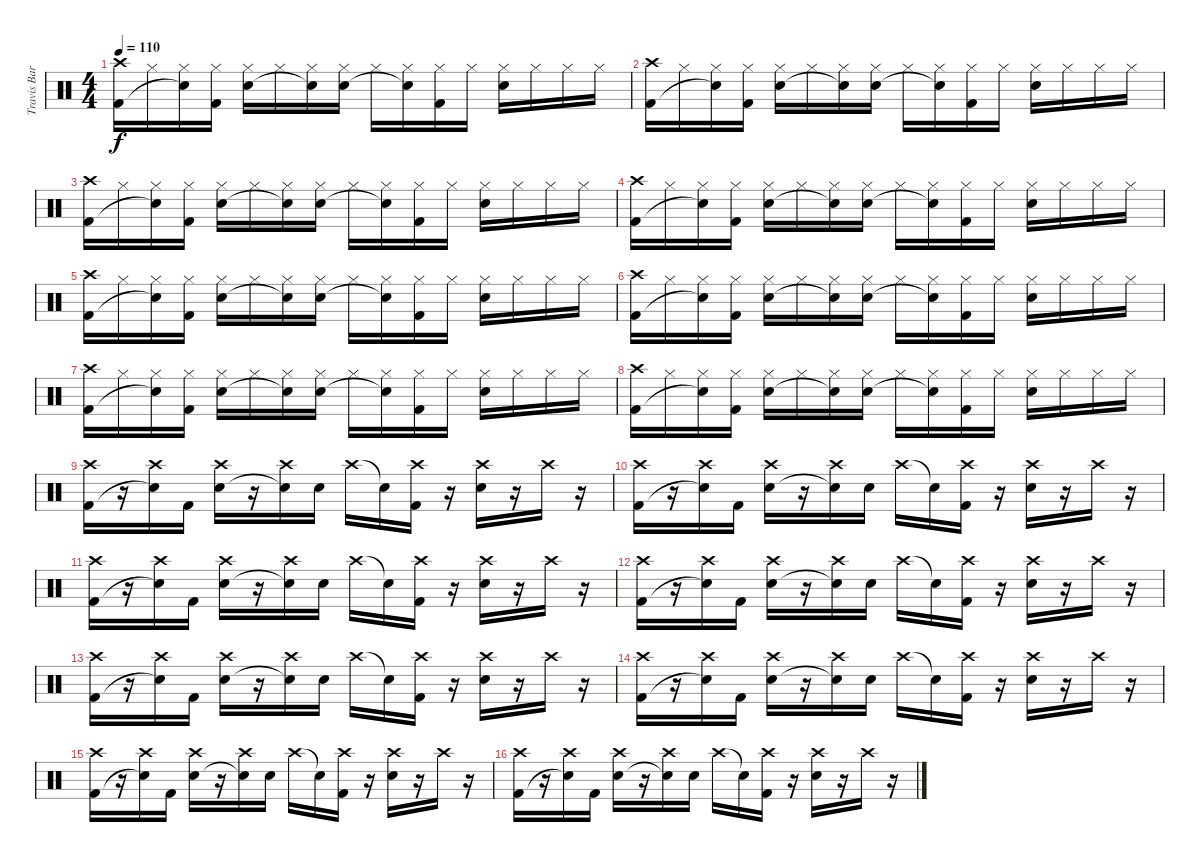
\track ("Travis Barker (Drums)" "Travis Bar") {instrument percussion}
\staff {score}
\articulation defaults
\ts (4 4)
\tempo 110
\clef neutral
\ks c
("Crash high (hit)" "Kick (hit) 2").16{dy f} "Hi-Hat (closed)".16 ("Hi-Hat (closed)" "Snare (hit)"{t}).16 ("Hi-Hat (closed)" "Kick (hit) 2").16 ("Hi-Hat (closed)" "Electric Snare (hit)").16 "Hi-Hat (closed)".16 ("Hi-Hat (closed)" "Snare (hit)"{t}).16 ("Hi-Hat (closed)" "Electric Snare (hit)").16 "Hi-Hat (closed)".16 ("Hi-Hat (closed)" "Snare (hit)"{t}).16 ("Hi-Hat (closed)" "Kick (hit) 2").16 "Hi-Hat (closed)".16 ("Hi-Hat (closed)" "Electric Snare (hit)").16 "Hi-Hat (closed)".16 "Hi-Hat (closed)".16 "Hi-Hat (closed)".16 |
("Crash high (hit)" "Kick (hit) 2").16 "Hi-Hat (closed)".16 ("Hi-Hat (closed)" "Snare (hit)"{t}).16 ("Hi-Hat (closed)" "Kick (hit) 2").16 ("Hi-Hat (closed)" "Electric Snare (hit)").16 "Hi-Hat (closed)".16 ("Hi-Hat (closed)" "Snare (hit)"{t}).16 ("Hi-Hat (closed)" "Electric Snare (hit)").16 "Hi-Hat (closed)".16 ("Hi-Hat (closed)" "Snare (hit)"{t}).16 ("Hi-Hat (closed)" "Kick (hit) 2").16 "Hi-Hat (closed)".16 ("Hi-Hat (closed)" "Electric Snare (hit)").16 "Hi-Hat (closed)".16 "Hi-Hat (closed)".16 "Hi-Hat (closed)".16 |
("Crash high (hit)" "Kick (hit) 2").16 "Hi-Hat (closed)".16 ("Hi-Hat (closed)" "Snare (hit)"{t}).16 ("Hi-Hat (closed)" "Kick (hit) 2").16 ("Hi-Hat (closed)" "Electric Snare (hit)").16 "Hi-Hat (closed)".16 ("Hi-Hat (closed)" "Snare (hit)"{t}).16 ("Hi-Hat (closed)" "Electric Snare (hit)").16 "Hi-Hat (closed)".16 ("Hi-Hat (closed)" "Snare (hit)"{t}).16 ("Hi-Hat (closed)" "Kick (hit) 2").16 "Hi-Hat (closed)".16 ("Hi-Hat (closed)" "Electric Snare (hit)").16 "Hi-Hat (closed)".16 "Hi-Hat (closed)".16 "Hi-Hat (closed)".16 |
("Crash high (hit)" "Kick (hit) 2").16 "Hi-Hat (closed)".16 ("Hi-Hat (closed)" "Snare (hit)"{t}).16 ("Hi-Hat (closed)" "Kick (hit) 2").16 ("Hi-Hat (closed)" "Electric Snare (hit)").16 "Hi-Hat (closed)".16 ("Hi-Hat (closed)" "Snare (hit)"{t}).16 ("Hi-Hat (closed)" "Electric Snare (hit)").16 "Hi-Hat (closed)".16 ("Hi-Hat (closed)" "Snare (hit)"{t}).16 ("Hi-Hat (closed)" "Kick (hit) 2").16 "Hi-Hat (closed)".16 ("Hi-Hat (closed)" "Electric Snare (hit)").16 "Hi-Hat (closed)".16 "Hi-Hat (closed)".16 "Hi-Hat (closed)".16 |
("Crash high (hit)" "Kick (hit) 2").16 "Hi-Hat (closed)".16 ("Hi-Hat (closed)" "Snare (hit)"{t}).16 ("Hi-Hat (closed)" "Kick (hit) 2").16 ("Hi-Hat (closed)" "Electric Snare (hit)").16 "Hi-Hat (closed)".16 ("Hi-Hat (closed)" "Snare (hit)"{t}).16 ("Hi-Hat (closed)" "Electric Snare (hit)").16 "Hi-Hat (closed)".16 ("Hi-Hat (closed)" "Snare (hit)"{t}).16 ("Hi-Hat (closed)" "Kick (hit) 2").16 "Hi-Hat (closed)".16 ("Hi-Hat (closed)" "Electric Snare (hit)").16 "Hi-Hat (closed)".16 "Hi-Hat (closed)".16 "Hi-Hat (closed)".16 |
("Crash high (hit)" "Kick (hit) 2").16 "Hi-Hat (closed)".16 ("Hi-Hat (closed)" "Snare (hit)"{t}).16 ("Hi-Hat (closed)" "Kick (hit) 2").16 ("Hi-Hat (closed)" "Electric Snare (hit)").16 "Hi-Hat (closed)".16 ("Hi-Hat (closed)" "Snare (hit)"{t}).16 ("Hi-Hat (closed)" "Electric Snare (hit)").16 "Hi-Hat (closed)".16 ("Hi-Hat (closed)" "Snare (hit)"{t}).16 ("Hi-Hat (closed)" "Kick (hit) 2").16 "Hi-Hat (closed)".16 ("Hi-Hat (closed)" "Electric Snare (hit)").16 "Hi-Hat (closed)".16 "Hi-Hat (closed)".16 "Hi-Hat (closed)".16 |
("Crash high (hit)" "Kick (hit) 2").16 "Hi-Hat (closed)".16 ("Hi-Hat (closed)" "Snare (hit)"{t}).16 ("Hi-Hat (closed)" "Kick (hit) 2").16 ("Hi-Hat (closed)" "Electric Snare (hit)").16 "Hi-Hat (closed)".16 ("Hi-Hat (closed)" "Snare (hit)"{t}).16 ("Hi-Hat (closed)" "Electric Snare (hit)").16 "Hi-Hat (closed)".16 ("Hi-Hat (closed)" "Snare (hit)"{t}).16 ("Hi-Hat (closed)" "Kick (hit) 2").16 "Hi-Hat (closed)".16 ("Hi-Hat (closed)" "Electric Snare (hit)").16 "Hi-Hat (closed)".16 "Hi-Hat (closed)".16 "Hi-Hat (closed)".16 |
("Crash high (hit)" "Kick (hit) 2").16 "Hi-Hat (closed)".16 ("Hi-Hat (closed)" "Snare (hit)"{t}).16 ("Hi-Hat (closed)" "Kick (hit) 2").16 ("Hi-Hat (closed)" "Electric Snare (hit)").16 "Hi-Hat (closed)".16 ("Hi-Hat (closed)" "Snare (hit)"{t}).16 ("Hi-Hat (closed)" "Electric Snare (hit)").16 "Hi-Hat (closed)".16 ("Hi-Hat (closed)" "Snare (hit)"{t}).16 ("Hi-Hat (closed)" "Kick (hit) 2").16 "Hi-Hat (closed)".16 ("Hi-Hat (closed)" "Electric Snare (hit)").16 "Hi-Hat (closed)".16 "Hi-Hat (closed)".16 "Hi-Hat (closed)".16 |
("Crash high (hit)" "Kick (hit) 2").16 r.16 ("Crash high (hit)" "Snare (hit)"{t}).16 "Kick (hit) 2".16 ("Crash high (hit)" "Electric Snare (hit)").16 r.16 ("Crash high (hit)" "Snare (hit)"{t}).16 "Electric Snare (hit)".16 "Crash high (hit)".16 "Snare (hit)"{t}.16 ("Crash high (hit)" "Kick (hit) 2").16 r.16 ("Crash high (hit)" "Electric Snare (hit)").16 r.16 "Crash high (hit)".16 r.16 |
("Crash high (hit)" "Kick (hit) 2").16 r.16 ("Crash high (hit)" "Snare (hit)"{t}).16 "Kick (hit) 2".16 ("Crash high (hit)" "Electric Snare (hit)").16 r.16 ("Crash high (hit)" "Snare (hit)"{t}).16 "Electric Snare (hit)".16 "Crash high (hit)".16 "Snare (hit)"{t}.16 ("Crash high (hit)" "Kick (hit) 2").16 r.16 ("Crash high (hit)" "Electric Snare (hit)").16 r.16 "Crash high (hit)".16 r.16 |
("Crash high (hit)" "Kick (hit) 2").16 r.16 ("Crash high (hit)" "Snare (hit)"{t}).16 "Kick (hit) 2".16 ("Crash high (hit)" "Electric Snare (hit)").16 r.16 ("Crash high (hit)" "Snare (hit)"{t}).16 "Electric Snare (hit)".16 "Crash high (hit)".16 "Snare (hit)"{t}.16 ("Crash high (hit)" "Kick (hit) 2").16 r.16 ("Crash high (hit)" "Electric Snare (hit)").16 r.16 "Crash high (hit)".16 r.16 |
("Crash high (hit)" "Kick (hit) 2").16 r.16 ("Crash high (hit)" "Snare (hit)"{t}).16 "Kick (hit) 2".16 ("Crash high (hit)" "Electric Snare (hit)").16 r.16 ("Crash high (hit)" "Snare (hit)"{t}).16 "Electric Snare (hit)".16 "Crash high (hit)".16 "Snare (hit)"{t}.16 ("Crash high (hit)" "Kick (hit) 2").16 r.16 ("Crash high (hit)" "Electric Snare (hit)").16 r.16 "Crash high (hit)".16 r.16 |
("Crash high (hit)" "Kick (hit) 2").16 r.16 ("Crash high (hit)" "Snare (hit)"{t}).16 "Kick (hit) 2".16 ("Crash high (hit)" "Electric Snare (hit)").16 r.16 ("Crash high (hit)" "Snare (hit)"{t}).16 "Electric Snare (hit)".16 "Crash high (hit)".16 "Snare (hit)"{t}.16 ("Crash high (hit)" "Kick (hit) 2").16 r.16 ("Crash high (hit)" "Electric Snare (hit)").16 r.16 "Crash high (hit)".16 r.16 |
("Crash high (hit)" "Kick (hit) 2").16 r.16 ("Crash high (hit)" "Snare (hit)"{t}).16 "Kick (hit) 2".16 ("Crash high (hit)" "Electric Snare (hit)").16 r.16 ("Crash high (hit)" "Snare (hit)"{t}).16 "Electric Snare (hit)".16 "Crash high (hit)".16 "Snare (hit)"{t}.16 ("Crash high (hit)" "Kick (hit) 2").16 r.16 ("Crash high (hit)" "Electric Snare (hit)").16 r.16 "Crash high (hit)".16 r.16 |
("Crash high (hit)" "Kick (hit) 2").16 r.16 ("Crash high (hit)" "Snare (hit)"{t}).16 "Kick (hit) 2".16 ("Crash high (hit)" "Electric Snare (hit)").16 r.16 ("Crash high (hit)" "Snare (hit)"{t}).16 "Electric Snare (hit)".16 "Crash high (hit)".16 "Snare (hit)"{t}.16 ("Crash high (hit)" "Kick (hit) 2").16 r.16 ("Crash high (hit)" "Electric Snare (hit)").16 r.16 "Crash high (hit)".16 r.16 |
("Crash high (hit)" "Kick (hit) 2").16 r.16 ("Crash high (hit)" "Snare (hit)"{t}).16 "Kick (hit) 2".16 ("Crash high (hit)" "Electric Snare (hit)").16 r.16 ("Crash high (hit)" "Snare (hit)"{t}).16 "Electric Snare (hit)".16 "Crash high (hit)".16 "Snare (hit)"{t}.16 ("Crash high (hit)" "Kick (hit) 2").16 r.16 ("Crash high (hit)" "Electric Snare (hit)").16 r.16 "Crash high (hit)".16 r.16
